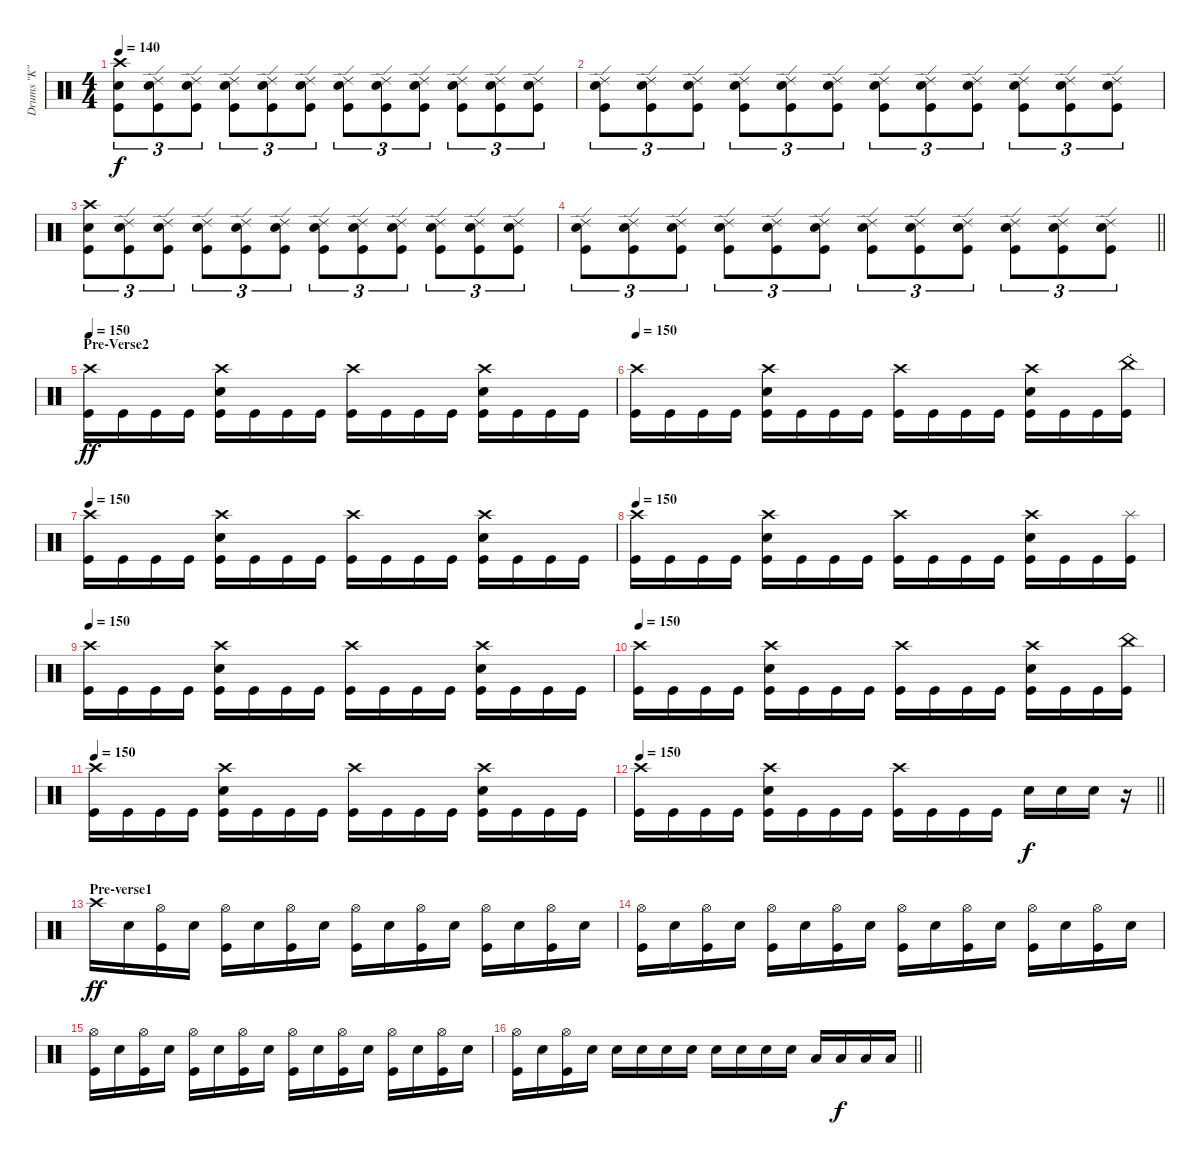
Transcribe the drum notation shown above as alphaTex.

\track ("Drums \"K\"" "Drums \"K\"") {instrument percussion}
\staff {score}
\articulation defaults
\ts (4 4)
\tempo 140
\clef neutral
\ks c
("Crash high (hit)" "Snare (hit) 2" "Kick (hit)").8{tu (3 2) dy f} ("Ride (edge) 2" "Snare (hit) 2" "Kick (hit)").8{tu (3 2)} ("Ride (edge) 2" "Snare (hit) 2" "Kick (hit)").8{tu (3 2)} ("Ride (edge) 2" "Snare (hit) 2" "Kick (hit)").8{tu (3 2)} ("Ride (edge) 2" "Snare (hit) 2" "Kick (hit)").8{tu (3 2)} ("Ride (edge) 2" "Snare (hit) 2" "Kick (hit)").8{tu (3 2)} ("Ride (edge) 2" "Snare (hit) 2" "Kick (hit)").8{tu (3 2)} ("Ride (edge) 2" "Snare (hit) 2" "Kick (hit)").8{tu (3 2)} ("Ride (edge) 2" "Snare (hit) 2" "Kick (hit)").8{tu (3 2)} ("Ride (edge) 2" "Snare (hit) 2" "Kick (hit)").8{tu (3 2)} ("Ride (edge) 2" "Snare (hit) 2" "Kick (hit)").8{tu (3 2)} ("Ride (edge) 2" "Snare (hit) 2" "Kick (hit)").8{tu (3 2)} |
("Ride (edge) 2" "Snare (hit) 2" "Kick (hit)").8{tu (3 2)} ("Ride (edge) 2" "Snare (hit) 2" "Kick (hit)").8{tu (3 2)} ("Ride (edge) 2" "Snare (hit) 2" "Kick (hit)").8{tu (3 2)} ("Ride (edge) 2" "Snare (hit) 2" "Kick (hit)").8{tu (3 2)} ("Ride (edge) 2" "Snare (hit) 2" "Kick (hit)").8{tu (3 2)} ("Ride (edge) 2" "Snare (hit) 2" "Kick (hit)").8{tu (3 2)} ("Ride (edge) 2" "Snare (hit) 2" "Kick (hit)").8{tu (3 2)} ("Ride (edge) 2" "Snare (hit) 2" "Kick (hit)").8{tu (3 2)} ("Ride (edge) 2" "Snare (hit) 2" "Kick (hit)").8{tu (3 2)} ("Ride (edge) 2" "Snare (hit) 2" "Kick (hit)").8{tu (3 2)} ("Ride (edge) 2" "Snare (hit) 2" "Kick (hit)").8{tu (3 2)} ("Ride (edge) 2" "Snare (hit) 2" "Kick (hit)").8{tu (3 2)} |
("Crash high (hit)" "Snare (hit) 2" "Kick (hit)").8{tu (3 2)} ("Ride (edge) 2" "Snare (hit) 2" "Kick (hit)").8{tu (3 2)} ("Ride (edge) 2" "Snare (hit) 2" "Kick (hit)").8{tu (3 2)} ("Ride (edge) 2" "Snare (hit) 2" "Kick (hit)").8{tu (3 2)} ("Ride (edge) 2" "Snare (hit) 2" "Kick (hit)").8{tu (3 2)} ("Ride (edge) 2" "Snare (hit) 2" "Kick (hit)").8{tu (3 2)} ("Ride (edge) 2" "Snare (hit) 2" "Kick (hit)").8{tu (3 2)} ("Ride (edge) 2" "Snare (hit) 2" "Kick (hit)").8{tu (3 2)} ("Ride (edge) 2" "Snare (hit) 2" "Kick (hit)").8{tu (3 2)} ("Ride (edge) 2" "Snare (hit) 2" "Kick (hit)").8{tu (3 2)} ("Ride (edge) 2" "Snare (hit) 2" "Kick (hit)").8{tu (3 2)} ("Ride (edge) 2" "Snare (hit) 2" "Kick (hit)").8{tu (3 2)} |
\barLineRight lightlight
("Ride (edge) 2" "Snare (hit) 2" "Kick (hit)").8{tu (3 2)} ("Ride (edge) 2" "Snare (hit) 2" "Kick (hit)").8{tu (3 2)} ("Ride (edge) 2" "Snare (hit) 2" "Kick (hit)").8{tu (3 2)} ("Ride (edge) 2" "Snare (hit) 2" "Kick (hit)").8{tu (3 2)} ("Ride (edge) 2" "Snare (hit) 2" "Kick (hit)").8{tu (3 2)} ("Ride (edge) 2" "Snare (hit) 2" "Kick (hit)").8{tu (3 2)} ("Ride (edge) 2" "Snare (hit) 2" "Kick (hit)").8{tu (3 2)} ("Ride (edge) 2" "Snare (hit) 2" "Kick (hit)").8{tu (3 2)} ("Ride (edge) 2" "Snare (hit) 2" "Kick (hit)").8{tu (3 2)} ("Ride (edge) 2" "Snare (hit) 2" "Kick (hit)").8{tu (3 2)} ("Ride (edge) 2" "Snare (hit) 2" "Kick (hit)").8{tu (3 2)} ("Ride (edge) 2" "Snare (hit) 2" "Kick (hit)").8{tu (3 2)} |
\section ("" "Pre-Verse2")
\tempo 150
("Crash high (hit)" "Kick (hit)").16{dy ff} "Kick (hit)".16 "Kick (hit)".16 "Kick (hit)".16 ("Crash high (hit)" "Snare (hit) 2" "Kick (hit)").16 "Kick (hit)".16 "Kick (hit)".16 "Kick (hit)".16 ("Crash high (hit)" "Kick (hit)").16 "Kick (hit)".16 "Kick (hit)".16 "Kick (hit)".16 ("Crash high (hit)" "Snare (hit) 2" "Kick (hit)").16 "Kick (hit)".16 "Kick (hit)".16 "Kick (hit)".16 |
\tempo 150
("Crash high (hit)" "Kick (hit)").16 "Kick (hit)".16 "Kick (hit)".16 "Kick (hit)".16 ("Crash high (hit)" "Snare (hit) 2" "Kick (hit)").16 "Kick (hit)".16 "Kick (hit)".16 "Kick (hit)".16 ("Crash high (hit)" "Kick (hit)").16 "Kick (hit)".16 "Kick (hit)".16 "Kick (hit)".16 ("Crash high (hit)" "Snare (hit) 2" "Kick (hit)").16 "Kick (hit)".16 "Kick (hit)".16 ("China (hit)"{st} "Kick (hit)").16 |
\tempo 150
("Crash high (hit)" "Kick (hit)").16 "Kick (hit)".16 "Kick (hit)".16 "Kick (hit)".16 ("Crash high (hit)" "Snare (hit) 2" "Kick (hit)").16 "Kick (hit)".16 "Kick (hit)".16 "Kick (hit)".16 ("Crash high (hit)" "Kick (hit)").16 "Kick (hit)".16 "Kick (hit)".16 "Kick (hit)".16 ("Crash high (hit)" "Snare (hit) 2" "Kick (hit)").16 "Kick (hit)".16 "Kick (hit)".16 "Kick (hit)".16 |
\tempo 150
("Crash high (hit)" "Kick (hit)").16 "Kick (hit)".16 "Kick (hit)".16 "Kick (hit)".16 ("Crash high (hit)" "Snare (hit) 2" "Kick (hit)").16 "Kick (hit)".16 "Kick (hit)".16 "Kick (hit)".16 ("Crash high (hit)" "Kick (hit)").16 "Kick (hit)".16 "Kick (hit)".16 "Kick (hit)".16 ("Crash high (hit)" "Snare (hit) 2" "Kick (hit)").16 "Kick (hit)".16 "Kick (hit)".16 ("Splash (hit)" "Kick (hit)").16 |
\tempo 150
("Crash high (hit)" "Kick (hit)").16 "Kick (hit)".16 "Kick (hit)".16 "Kick (hit)".16 ("Crash high (hit)" "Snare (hit) 2" "Kick (hit)").16 "Kick (hit)".16 "Kick (hit)".16 "Kick (hit)".16 ("Crash high (hit)" "Kick (hit)").16 "Kick (hit)".16 "Kick (hit)".16 "Kick (hit)".16 ("Crash high (hit)" "Snare (hit) 2" "Kick (hit)").16 "Kick (hit)".16 "Kick (hit)".16 "Kick (hit)".16 |
\tempo 150
("Crash high (hit)" "Kick (hit)").16 "Kick (hit)".16 "Kick (hit)".16 "Kick (hit)".16 ("Crash high (hit)" "Snare (hit) 2" "Kick (hit)").16 "Kick (hit)".16 "Kick (hit)".16 "Kick (hit)".16 ("Crash high (hit)" "Kick (hit)").16 "Kick (hit)".16 "Kick (hit)".16 "Kick (hit)".16 ("Crash high (hit)" "Snare (hit) 2" "Kick (hit)").16 "Kick (hit)".16 "Kick (hit)".16 ("China (hit)" "Kick (hit)").16 |
\tempo 150
("Crash high (hit)" "Kick (hit)").16 "Kick (hit)".16 "Kick (hit)".16 "Kick (hit)".16 ("Crash high (hit)" "Snare (hit) 2" "Kick (hit)").16 "Kick (hit)".16 "Kick (hit)".16 "Kick (hit)".16 ("Crash high (hit)" "Kick (hit)").16 "Kick (hit)".16 "Kick (hit)".16 "Kick (hit)".16 ("Crash high (hit)" "Snare (hit) 2" "Kick (hit)").16 "Kick (hit)".16 "Kick (hit)".16 "Kick (hit)".16 |
\tempo 150
\barLineRight lightlight
("Crash high (hit)" "Kick (hit)").16 "Kick (hit)".16 "Kick (hit)".16 "Kick (hit)".16 ("Crash high (hit)" "Snare (hit) 2" "Kick (hit)").16 "Kick (hit)".16 "Kick (hit)".16 "Kick (hit)".16 ("Crash high (hit)" "Kick (hit)").16 "Kick (hit)".16 "Kick (hit)".16 "Kick (hit)".16 "Snare (hit) 2".16{dy f} "Snare (hit) 2".16 "Snare (hit) 2".16 r.16 |
\section ("" "Pre-verse1")
"Crash high (hit)".16{dy ff} "Snare (hit) 2".16 ("Hi-Hat (open)" "Kick (hit)").16 "Snare (hit) 2".16 ("Hi-Hat (open)" "Kick (hit)").16 "Snare (hit) 2".16 ("Hi-Hat (open)" "Kick (hit)").16 "Snare (hit) 2".16 ("Hi-Hat (open)" "Kick (hit)").16 "Snare (hit) 2".16 ("Hi-Hat (open)" "Kick (hit)").16 "Snare (hit) 2".16 ("Hi-Hat (open)" "Kick (hit)").16 "Snare (hit) 2".16 ("Hi-Hat (open)" "Kick (hit)").16 "Snare (hit) 2".16 |
("Hi-Hat (open)" "Kick (hit)").16 "Snare (hit) 2".16 ("Hi-Hat (open)" "Kick (hit)").16 "Snare (hit) 2".16 ("Hi-Hat (open)" "Kick (hit)").16 "Snare (hit) 2".16 ("Hi-Hat (open)" "Kick (hit)").16 "Snare (hit) 2".16 ("Hi-Hat (open)" "Kick (hit)").16 "Snare (hit) 2".16 ("Hi-Hat (open)" "Kick (hit)").16 "Snare (hit) 2".16 ("Hi-Hat (open)" "Kick (hit)").16 "Snare (hit) 2".16 ("Hi-Hat (open)" "Kick (hit)").16 "Snare (hit) 2".16 |
("Hi-Hat (open)" "Kick (hit)").16 "Snare (hit) 2".16 ("Hi-Hat (open)" "Kick (hit)").16 "Snare (hit) 2".16 ("Hi-Hat (open)" "Kick (hit)").16 "Snare (hit) 2".16 ("Hi-Hat (open)" "Kick (hit)").16 "Snare (hit) 2".16 ("Hi-Hat (open)" "Kick (hit)").16 "Snare (hit) 2".16 ("Hi-Hat (open)" "Kick (hit)").16 "Snare (hit) 2".16 ("Hi-Hat (open)" "Kick (hit)").16 "Snare (hit) 2".16 ("Hi-Hat (open)" "Kick (hit)").16 "Snare (hit) 2".16 |
\barLineRight lightlight
("Hi-Hat (open)" "Kick (hit)").16 "Snare (hit) 2".16 ("Hi-Hat (open)" "Kick (hit)").16 "Snare (hit) 2".16 "Snare (hit) 2".16 "Snare (hit) 2".16 "Snare (hit) 2".16 "Snare (hit) 2".16 "Snare (hit) 2".16 "Snare (hit) 2".16 "Snare (hit) 2".16 "Snare (hit) 2".16 "Low Floor Tom (hit)".16 "Low Floor Tom (hit)".16{dy f} "Low Floor Tom (hit)".16 "Low Floor Tom (hit)".16
